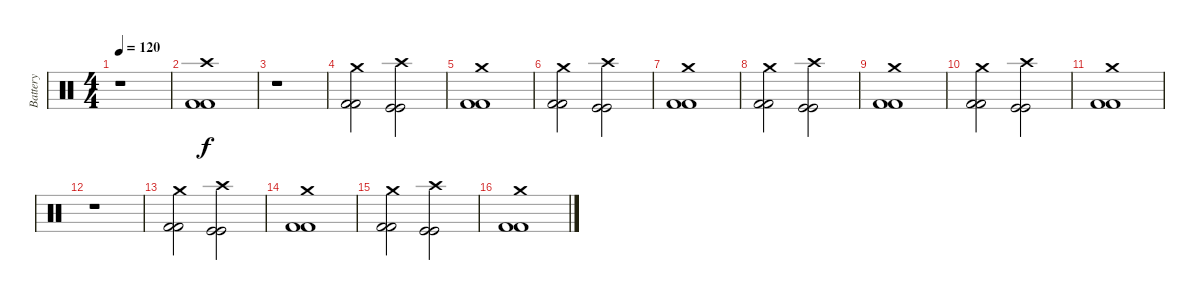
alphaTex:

\track ("Battery" "Battery") {instrument percussion}
\staff {score}
\articulation defaults
\ts (4 4)
\tempo 120
\clef neutral
\ks c
r.1{dy f} |
("Crash high (hit)" "Kick (hit) 2" "Kick (hit) 2").1 |
r.1 |
("Crash medium (hit)" "Kick (hit) 2" "Kick (hit) 2").2 ("Crash high (hit)" "Kick (hit)" "Kick (hit)").2 |
("Crash medium (hit)" "Kick (hit) 2" "Kick (hit) 2").1 |
("Crash medium (hit)" "Kick (hit) 2" "Kick (hit) 2").2 ("Crash high (hit)" "Kick (hit)" "Kick (hit)").2 |
("Crash medium (hit)" "Kick (hit) 2" "Kick (hit) 2").1 |
("Crash medium (hit)" "Kick (hit) 2" "Kick (hit) 2").2 ("Crash high (hit)" "Kick (hit)" "Kick (hit)").2 |
("Crash medium (hit)" "Kick (hit) 2" "Kick (hit) 2").1 |
("Crash medium (hit)" "Kick (hit) 2" "Kick (hit) 2").2 ("Crash high (hit)" "Kick (hit)" "Kick (hit)").2 |
("Crash medium (hit)" "Kick (hit) 2" "Kick (hit) 2").1 |
r.1 |
("Crash medium (hit)" "Kick (hit) 2" "Kick (hit) 2").2 ("Crash high (hit)" "Kick (hit)" "Kick (hit)").2 |
("Crash medium (hit)" "Kick (hit) 2" "Kick (hit) 2").1 |
("Crash medium (hit)" "Kick (hit) 2" "Kick (hit) 2").2 ("Crash high (hit)" "Kick (hit)" "Kick (hit)").2 |
("Crash medium (hit)" "Kick (hit) 2" "Kick (hit) 2").1
